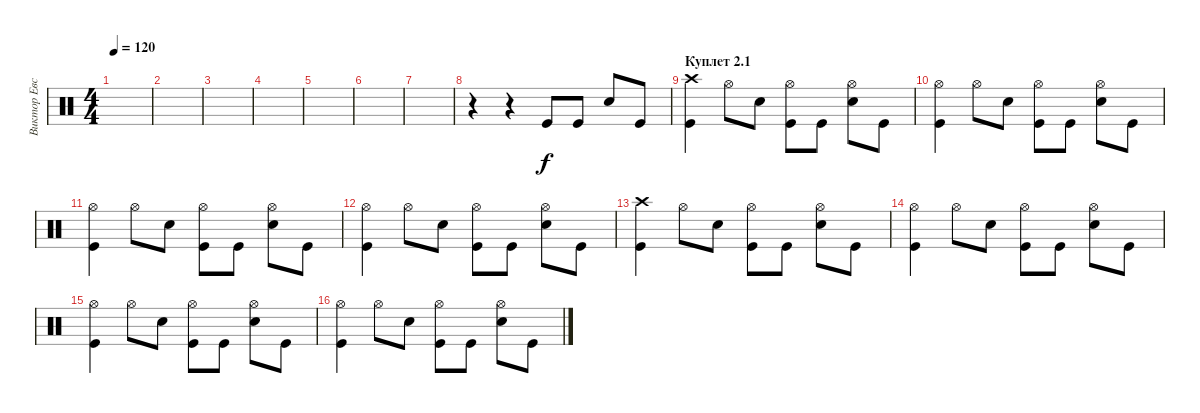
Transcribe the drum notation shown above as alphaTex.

\track ("Виктор Евстратов" "Виктор Евс") {instrument percussion}
\staff {score}
\articulation defaults
\ts (4 4)
\tempo 120
\clef neutral
\ks c
|
|
|
|
|
|
|
r.4 r.4 "Kick (hit)".8 "Kick (hit)".8 "Snare (hit) 2".8 "Kick (hit)".8 |
\section ("" "Куплет 2.1")
("Kick (hit)" "Crash high (hit)").4 "Hi-Hat (open)".8 "Snare (hit) 2".8 ("Kick (hit)" "Hi-Hat (open)").8 "Kick (hit)".8 ("Snare (hit) 2" "Hi-Hat (open)").8 "Kick (hit)".8 |
("Kick (hit)" "Hi-Hat (open)").4 "Hi-Hat (open)".8 "Snare (hit) 2".8 ("Kick (hit)" "Hi-Hat (open)").8 "Kick (hit)".8 ("Snare (hit) 2" "Hi-Hat (open)").8 "Kick (hit)".8 |
("Kick (hit)" "Hi-Hat (open)").4 "Hi-Hat (open)".8 "Snare (hit) 2".8 ("Kick (hit)" "Hi-Hat (open)").8 "Kick (hit)".8 ("Snare (hit) 2" "Hi-Hat (open)").8 "Kick (hit)".8 |
("Kick (hit)" "Hi-Hat (open)").4 "Hi-Hat (open)".8 "Snare (hit) 2".8 ("Kick (hit)" "Hi-Hat (open)").8 "Kick (hit)".8 ("Snare (hit) 2" "Hi-Hat (open)").8 "Kick (hit)".8 |
("Kick (hit)" "Crash high (hit)").4 "Hi-Hat (open)".8 "Snare (hit) 2".8 ("Kick (hit)" "Hi-Hat (open)").8 "Kick (hit)".8 ("Snare (hit) 2" "Hi-Hat (open)").8 "Kick (hit)".8 |
("Kick (hit)" "Hi-Hat (open)").4 "Hi-Hat (open)".8 "Snare (hit) 2".8 ("Kick (hit)" "Hi-Hat (open)").8 "Kick (hit)".8 ("Snare (hit) 2" "Hi-Hat (open)").8 "Kick (hit)".8 |
("Kick (hit)" "Hi-Hat (open)").4 "Hi-Hat (open)".8 "Snare (hit) 2".8 ("Kick (hit)" "Hi-Hat (open)").8 "Kick (hit)".8 ("Snare (hit) 2" "Hi-Hat (open)").8 "Kick (hit)".8 |
("Kick (hit)" "Hi-Hat (open)").4 "Hi-Hat (open)".8 "Snare (hit) 2".8 ("Kick (hit)" "Hi-Hat (open)").8 "Kick (hit)".8 ("Snare (hit) 2" "Hi-Hat (open)").8 "Kick (hit)".8
